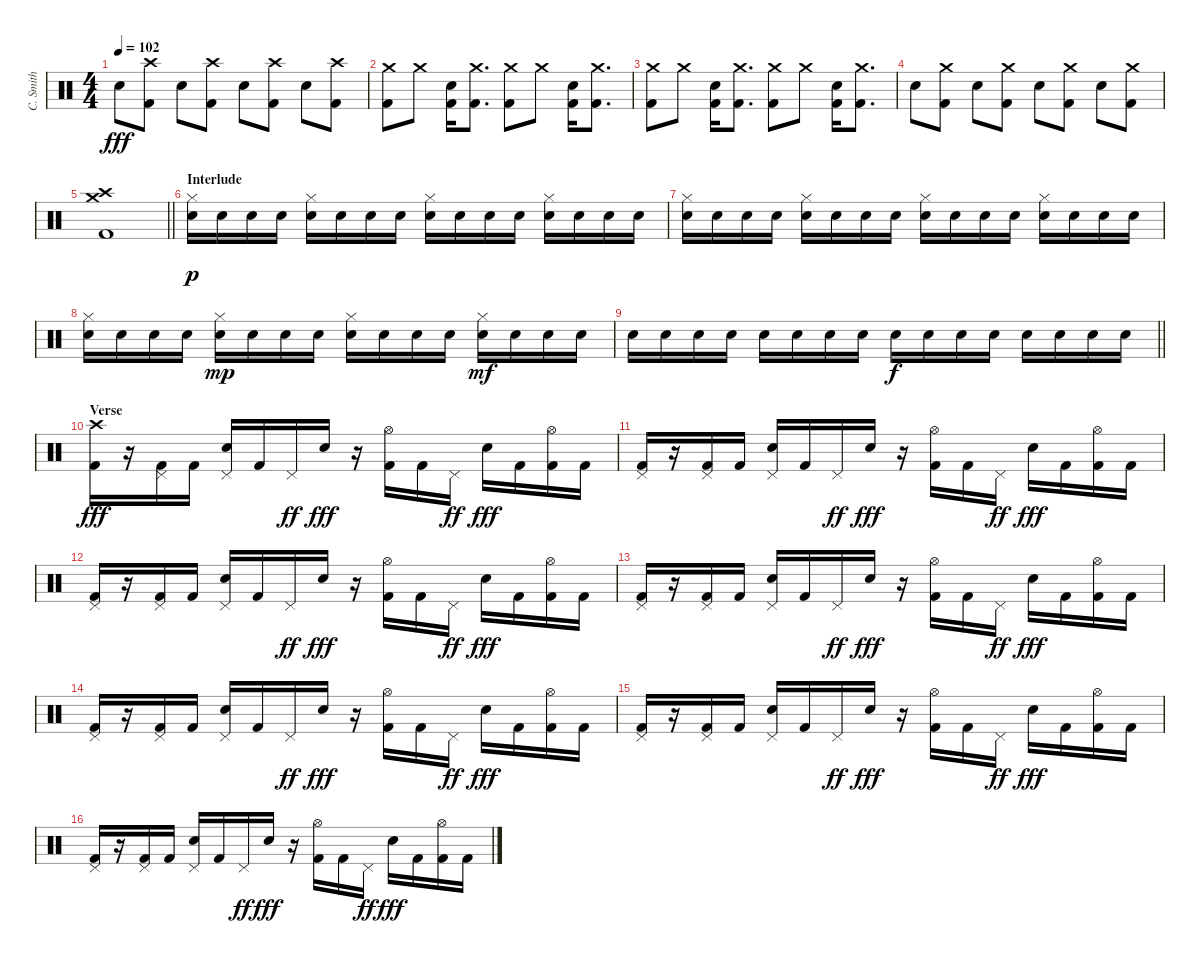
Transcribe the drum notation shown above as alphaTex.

\track ("C. Smith" "C. Smith") {instrument percussion}
\staff {score}
\articulation defaults
\ts (4 4)
\tempo 102
\clef neutral
\ks c "Snare (hit) 2".8{dy fff}
("Crash high (hit)" "Kick (hit) 2").8 "Snare (hit) 2".8 ("Crash high (hit)" "Kick (hit) 2").8 "Snare (hit) 2".8 ("Crash high (hit)" "Kick (hit) 2").8 "Snare (hit) 2".8 ("Crash high (hit)" "Kick (hit) 2").8 |
("Crash medium (hit)" "Kick (hit) 2").8 "Crash medium (hit)".8 ("Snare (hit) 2" "Kick (hit) 2").16 ("Crash medium (hit)" "Kick (hit) 2").8{d} ("Crash medium (hit)" "Kick (hit) 2").8 "Crash medium (hit)".8 ("Snare (hit) 2" "Kick (hit) 2").16 ("Crash medium (hit)" "Kick (hit) 2").8{d} |
("Crash medium (hit)" "Kick (hit) 2").8 "Crash medium (hit)".8 ("Snare (hit) 2" "Kick (hit) 2").16 ("Crash medium (hit)" "Kick (hit) 2").8{d} ("Crash medium (hit)" "Kick (hit) 2").8 "Crash medium (hit)".8 ("Snare (hit) 2" "Kick (hit) 2").16 ("Crash medium (hit)" "Kick (hit) 2").8{d} |
"Snare (hit) 2".8 ("Crash medium (hit)" "Kick (hit) 2").8 "Snare (hit) 2".8 ("Crash medium (hit)" "Kick (hit) 2").8 "Snare (hit) 2".8 ("Crash medium (hit)" "Kick (hit) 2").8 "Snare (hit) 2".8 ("Crash medium (hit)" "Kick (hit) 2").8 |
\barLineRight lightlight
("Crash medium (hit)" "Crash high (hit)" "Kick (hit) 2").1{volume 13} |
\section ("" "Interlude")
("Hi-Hat (closed)" "Snare (hit) 2").16{dy p} "Snare (hit) 2".16 "Snare (hit) 2".16 "Snare (hit) 2".16 ("Hi-Hat (closed)" "Snare (hit) 2").16 "Snare (hit) 2".16 "Snare (hit) 2".16 "Snare (hit) 2".16 ("Hi-Hat (closed)" "Snare (hit) 2").16 "Snare (hit) 2".16 "Snare (hit) 2".16 "Snare (hit) 2".16 ("Hi-Hat (closed)" "Snare (hit) 2").16 "Snare (hit) 2".16 "Snare (hit) 2".16 "Snare (hit) 2".16 |
("Hi-Hat (closed)" "Snare (hit) 2").16 "Snare (hit) 2".16 "Snare (hit) 2".16 "Snare (hit) 2".16 ("Hi-Hat (closed)" "Snare (hit) 2").16 "Snare (hit) 2".16 "Snare (hit) 2".16 "Snare (hit) 2".16 ("Hi-Hat (closed)" "Snare (hit) 2").16 "Snare (hit) 2".16 "Snare (hit) 2".16 "Snare (hit) 2".16 ("Hi-Hat (closed)" "Snare (hit) 2").16 "Snare (hit) 2".16 "Snare (hit) 2".16 "Snare (hit) 2".16 |
("Hi-Hat (closed)" "Snare (hit) 2").16 "Snare (hit) 2".16 "Snare (hit) 2".16 "Snare (hit) 2".16 ("Hi-Hat (closed)" "Snare (hit) 2").16{dy mp} "Snare (hit) 2".16 "Snare (hit) 2".16 "Snare (hit) 2".16 ("Hi-Hat (closed)" "Snare (hit) 2").16 "Snare (hit) 2".16 "Snare (hit) 2".16 "Snare (hit) 2".16 ("Hi-Hat (closed)" "Snare (hit) 2").16{dy mf} "Snare (hit) 2".16 "Snare (hit) 2".16 "Snare (hit) 2".16 |
\barLineRight lightlight "Snare (hit) 2".16 "Snare (hit) 2".16 "Snare (hit) 2".16 "Snare (hit) 2".16 "Snare (hit) 2".16 "Snare (hit) 2".16 "Snare (hit) 2".16 "Snare (hit) 2".16 "Snare (hit) 2".16{dy f} "Snare (hit) 2".16 "Snare (hit) 2".16 "Snare (hit) 2".16 "Snare (hit) 2".16 "Snare (hit) 2".16 "Snare (hit) 2".16 "Snare (hit) 2".16
|
\section ("" "Verse")
("Crash high (hit)" "Kick (hit) 2").16{dy fff} r.16 ("Pedal Hi-Hat (hit)" "Kick (hit) 2").16 "Kick (hit) 2".16 ("Pedal Hi-Hat (hit)" "Snare (hit) 2").16 "Kick (hit) 2".16 "Pedal Hi-Hat (hit)".16{dy ff} "Snare (hit) 2".16{dy fff} r.16 ("Hi-Hat (open)" "Kick (hit) 2").16 "Kick (hit) 2".16 "Pedal Hi-Hat (hit)".16{dy ff} "Snare (hit) 2".16{dy fff} "Kick (hit) 2".16 ("Hi-Hat (open)" "Kick (hit) 2").16 "Kick (hit) 2".16 |
("Pedal Hi-Hat (hit)" "Kick (hit) 2").16 r.16 ("Pedal Hi-Hat (hit)" "Kick (hit) 2").16 "Kick (hit) 2".16 ("Pedal Hi-Hat (hit)" "Snare (hit) 2").16 "Kick (hit) 2".16 "Pedal Hi-Hat (hit)".16{dy ff} "Snare (hit) 2".16{dy fff} r.16 ("Hi-Hat (open)" "Kick (hit) 2").16 "Kick (hit) 2".16 "Pedal Hi-Hat (hit)".16{dy ff} "Snare (hit) 2".16{dy fff} "Kick (hit) 2".16 ("Hi-Hat (open)" "Kick (hit) 2").16 "Kick (hit) 2".16 |
("Pedal Hi-Hat (hit)" "Kick (hit) 2").16 r.16 ("Pedal Hi-Hat (hit)" "Kick (hit) 2").16 "Kick (hit) 2".16 ("Pedal Hi-Hat (hit)" "Snare (hit) 2").16 "Kick (hit) 2".16 "Pedal Hi-Hat (hit)".16{dy ff} "Snare (hit) 2".16{dy fff} r.16 ("Hi-Hat (open)" "Kick (hit) 2").16 "Kick (hit) 2".16 "Pedal Hi-Hat (hit)".16{dy ff} "Snare (hit) 2".16{dy fff} "Kick (hit) 2".16 ("Hi-Hat (open)" "Kick (hit) 2").16 "Kick (hit) 2".16 |
("Pedal Hi-Hat (hit)" "Kick (hit) 2").16 r.16 ("Pedal Hi-Hat (hit)" "Kick (hit) 2").16 "Kick (hit) 2".16 ("Pedal Hi-Hat (hit)" "Snare (hit) 2").16 "Kick (hit) 2".16 "Pedal Hi-Hat (hit)".16{dy ff} "Snare (hit) 2".16{dy fff} r.16 ("Hi-Hat (open)" "Kick (hit) 2").16 "Kick (hit) 2".16 "Pedal Hi-Hat (hit)".16{dy ff} "Snare (hit) 2".16{dy fff} "Kick (hit) 2".16 ("Hi-Hat (open)" "Kick (hit) 2").16 "Kick (hit) 2".16 |
("Pedal Hi-Hat (hit)" "Kick (hit) 2").16 r.16 ("Pedal Hi-Hat (hit)" "Kick (hit) 2").16 "Kick (hit) 2".16 ("Pedal Hi-Hat (hit)" "Snare (hit) 2").16 "Kick (hit) 2".16 "Pedal Hi-Hat (hit)".16{dy ff} "Snare (hit) 2".16{dy fff} r.16 ("Hi-Hat (open)" "Kick (hit) 2").16 "Kick (hit) 2".16 "Pedal Hi-Hat (hit)".16{dy ff} "Snare (hit) 2".16{dy fff} "Kick (hit) 2".16 ("Hi-Hat (open)" "Kick (hit) 2").16 "Kick (hit) 2".16 |
("Pedal Hi-Hat (hit)" "Kick (hit) 2").16 r.16 ("Pedal Hi-Hat (hit)" "Kick (hit) 2").16 "Kick (hit) 2".16 ("Pedal Hi-Hat (hit)" "Snare (hit) 2").16 "Kick (hit) 2".16 "Pedal Hi-Hat (hit)".16{dy ff} "Snare (hit) 2".16{dy fff} r.16 ("Hi-Hat (open)" "Kick (hit) 2").16 "Kick (hit) 2".16 "Pedal Hi-Hat (hit)".16{dy ff} "Snare (hit) 2".16{dy fff} "Kick (hit) 2".16 ("Hi-Hat (open)" "Kick (hit) 2").16 "Kick (hit) 2".16 |
("Pedal Hi-Hat (hit)" "Kick (hit) 2").16 r.16 ("Pedal Hi-Hat (hit)" "Kick (hit) 2").16 "Kick (hit) 2".16 ("Pedal Hi-Hat (hit)" "Snare (hit) 2").16 "Kick (hit) 2".16 "Pedal Hi-Hat (hit)".16{dy ff} "Snare (hit) 2".16{dy fff} r.16 ("Hi-Hat (open)" "Kick (hit) 2").16 "Kick (hit) 2".16 "Pedal Hi-Hat (hit)".16{dy ff} "Snare (hit) 2".16{dy fff} "Kick (hit) 2".16 ("Hi-Hat (open)" "Kick (hit) 2").16 "Kick (hit) 2".16
